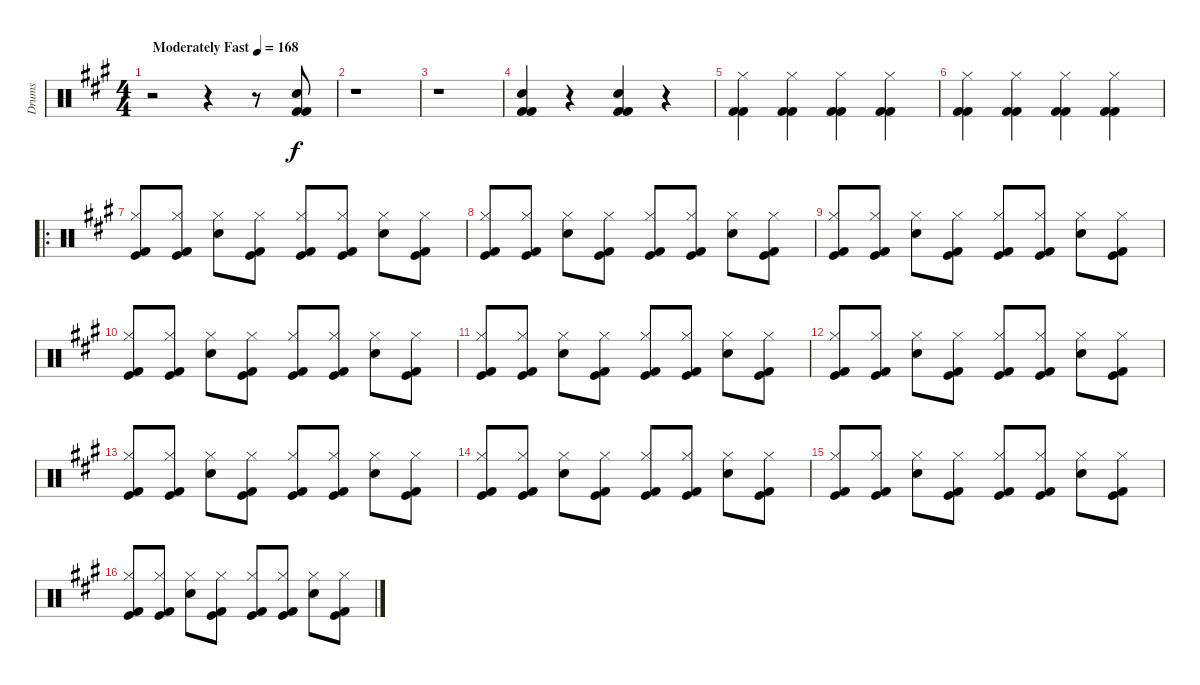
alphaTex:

\track ("Drums" "Drums") {instrument percussion}
\staff {score}
\articulation defaults
\ts (4 4)
\tempo (168 "Moderately Fast")
\clef neutral
\ks a
r.2{dy f} r.4 r.8 ("Snare (hit) 2" "Kick (hit) 2" "Kick (hit) 2").8 |
r.1 |
r.1 |
("Snare (hit) 2" "Kick (hit) 2" "Kick (hit) 2").4 r.4 ("Snare (hit) 2" "Kick (hit) 2" "Kick (hit) 2").4 r.4 |
("Hi-Hat (closed)" "Kick (hit) 2" "Kick (hit) 2").4 ("Hi-Hat (closed)" "Kick (hit) 2" "Kick (hit) 2").4 ("Hi-Hat (closed)" "Kick (hit) 2" "Kick (hit) 2").4 ("Hi-Hat (closed)" "Kick (hit) 2" "Kick (hit) 2").4 |
("Hi-Hat (closed)" "Kick (hit) 2" "Kick (hit) 2").4 ("Hi-Hat (closed)" "Kick (hit) 2" "Kick (hit) 2").4 ("Hi-Hat (closed)" "Kick (hit) 2" "Kick (hit) 2").4 ("Hi-Hat (closed)" "Kick (hit) 2" "Kick (hit) 2").4 |
\ro
("Hi-Hat (closed)" "Kick (hit)" "Kick (hit) 2").8 ("Hi-Hat (closed)" "Kick (hit)" "Kick (hit) 2").8 ("Hi-Hat (closed)" "Snare (hit) 2").8 ("Hi-Hat (closed)" "Kick (hit)" "Kick (hit) 2").8 ("Hi-Hat (closed)" "Kick (hit)" "Kick (hit) 2").8 ("Hi-Hat (closed)" "Kick (hit)" "Kick (hit) 2").8 ("Hi-Hat (closed)" "Snare (hit) 2").8 ("Hi-Hat (closed)" "Kick (hit)" "Kick (hit) 2").8 |
("Hi-Hat (closed)" "Kick (hit)" "Kick (hit) 2").8 ("Hi-Hat (closed)" "Kick (hit)" "Kick (hit) 2").8 ("Hi-Hat (closed)" "Snare (hit) 2").8 ("Hi-Hat (closed)" "Kick (hit)" "Kick (hit) 2").8 ("Hi-Hat (closed)" "Kick (hit)" "Kick (hit) 2").8 ("Hi-Hat (closed)" "Kick (hit)" "Kick (hit) 2").8 ("Hi-Hat (closed)" "Snare (hit) 2").8 ("Hi-Hat (closed)" "Kick (hit)" "Kick (hit) 2").8 |
("Hi-Hat (closed)" "Kick (hit)" "Kick (hit) 2").8 ("Hi-Hat (closed)" "Kick (hit)" "Kick (hit) 2").8 ("Hi-Hat (closed)" "Snare (hit) 2").8 ("Hi-Hat (closed)" "Kick (hit)" "Kick (hit) 2").8 ("Hi-Hat (closed)" "Kick (hit)" "Kick (hit) 2").8 ("Hi-Hat (closed)" "Kick (hit)" "Kick (hit) 2").8 ("Hi-Hat (closed)" "Snare (hit) 2").8 ("Hi-Hat (closed)" "Kick (hit)" "Kick (hit) 2").8 |
("Hi-Hat (closed)" "Kick (hit)" "Kick (hit) 2").8 ("Hi-Hat (closed)" "Kick (hit)" "Kick (hit) 2").8 ("Hi-Hat (closed)" "Snare (hit) 2").8 ("Hi-Hat (closed)" "Kick (hit)" "Kick (hit) 2").8 ("Hi-Hat (closed)" "Kick (hit)" "Kick (hit) 2").8 ("Hi-Hat (closed)" "Kick (hit)" "Kick (hit) 2").8 ("Hi-Hat (closed)" "Snare (hit) 2").8 ("Hi-Hat (closed)" "Kick (hit)" "Kick (hit) 2").8 |
("Hi-Hat (closed)" "Kick (hit)" "Kick (hit) 2").8 ("Hi-Hat (closed)" "Kick (hit)" "Kick (hit) 2").8 ("Hi-Hat (closed)" "Snare (hit) 2").8 ("Hi-Hat (closed)" "Kick (hit)" "Kick (hit) 2").8 ("Hi-Hat (closed)" "Kick (hit)" "Kick (hit) 2").8 ("Hi-Hat (closed)" "Kick (hit)" "Kick (hit) 2").8 ("Hi-Hat (closed)" "Snare (hit) 2").8 ("Hi-Hat (closed)" "Kick (hit)" "Kick (hit) 2").8 |
("Hi-Hat (closed)" "Kick (hit)" "Kick (hit) 2").8 ("Hi-Hat (closed)" "Kick (hit)" "Kick (hit) 2").8 ("Hi-Hat (closed)" "Snare (hit) 2").8 ("Hi-Hat (closed)" "Kick (hit)" "Kick (hit) 2").8 ("Hi-Hat (closed)" "Kick (hit)" "Kick (hit) 2").8 ("Hi-Hat (closed)" "Kick (hit)" "Kick (hit) 2").8 ("Hi-Hat (closed)" "Snare (hit) 2").8 ("Hi-Hat (closed)" "Kick (hit)" "Kick (hit) 2").8 |
("Hi-Hat (closed)" "Kick (hit)" "Kick (hit) 2").8 ("Hi-Hat (closed)" "Kick (hit)" "Kick (hit) 2").8 ("Hi-Hat (closed)" "Snare (hit) 2").8 ("Hi-Hat (closed)" "Kick (hit)" "Kick (hit) 2").8 ("Hi-Hat (closed)" "Kick (hit)" "Kick (hit) 2").8 ("Hi-Hat (closed)" "Kick (hit)" "Kick (hit) 2").8 ("Hi-Hat (closed)" "Snare (hit) 2").8 ("Hi-Hat (closed)" "Kick (hit)" "Kick (hit) 2").8 |
("Hi-Hat (closed)" "Kick (hit)" "Kick (hit) 2").8 ("Hi-Hat (closed)" "Kick (hit)" "Kick (hit) 2").8 ("Hi-Hat (closed)" "Snare (hit) 2").8 ("Hi-Hat (closed)" "Kick (hit)" "Kick (hit) 2").8 ("Hi-Hat (closed)" "Kick (hit)" "Kick (hit) 2").8 ("Hi-Hat (closed)" "Kick (hit)" "Kick (hit) 2").8 ("Hi-Hat (closed)" "Snare (hit) 2").8 ("Hi-Hat (closed)" "Kick (hit)" "Kick (hit) 2").8 |
("Hi-Hat (closed)" "Kick (hit)" "Kick (hit) 2").8 ("Hi-Hat (closed)" "Kick (hit)" "Kick (hit) 2").8 ("Hi-Hat (closed)" "Snare (hit) 2").8 ("Hi-Hat (closed)" "Kick (hit)" "Kick (hit) 2").8 ("Hi-Hat (closed)" "Kick (hit)" "Kick (hit) 2").8 ("Hi-Hat (closed)" "Kick (hit)" "Kick (hit) 2").8 ("Hi-Hat (closed)" "Snare (hit) 2").8 ("Hi-Hat (closed)" "Kick (hit)" "Kick (hit) 2").8 |
("Hi-Hat (closed)" "Kick (hit)" "Kick (hit) 2").8 ("Hi-Hat (closed)" "Kick (hit)" "Kick (hit) 2").8 ("Hi-Hat (closed)" "Snare (hit) 2").8 ("Hi-Hat (closed)" "Kick (hit)" "Kick (hit) 2").8 ("Hi-Hat (closed)" "Kick (hit)" "Kick (hit) 2").8 ("Hi-Hat (closed)" "Kick (hit)" "Kick (hit) 2").8 ("Hi-Hat (closed)" "Snare (hit) 2").8 ("Hi-Hat (closed)" "Kick (hit)" "Kick (hit) 2").8
